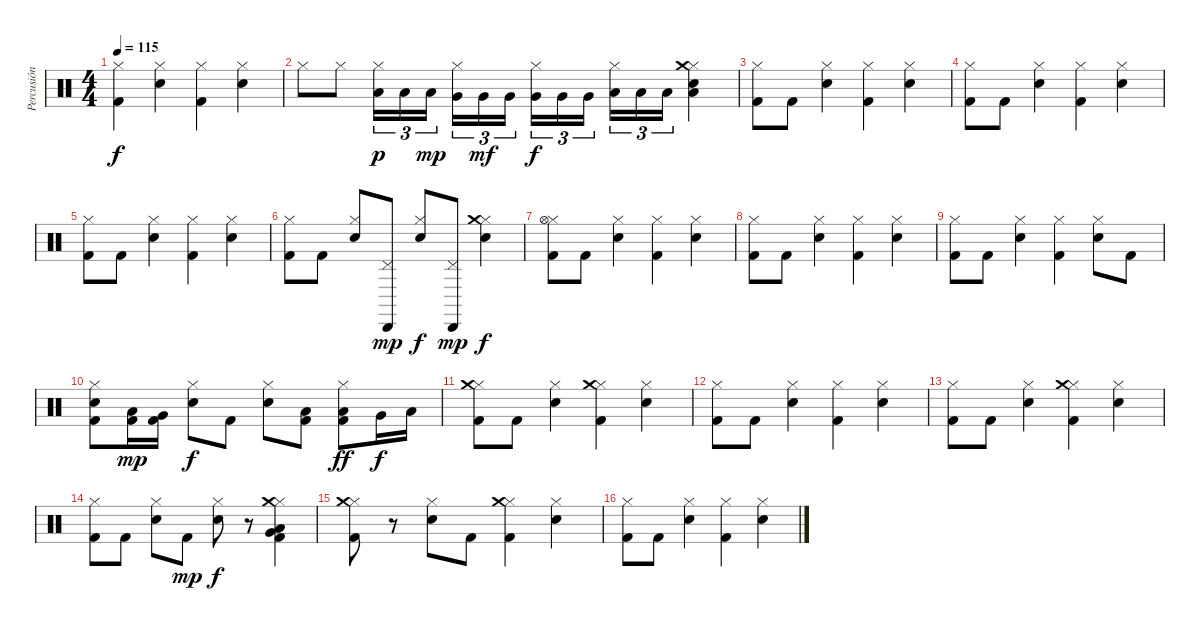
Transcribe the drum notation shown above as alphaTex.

\track ("Percusión" "Percusión") {instrument percussion}
\staff {score}
\articulation defaults
\ts (4 4)
\tempo 115
\clef neutral
\ks c
("Hi-Hat (closed)" "Kick (hit) 2").4{dy f} ("Hi-Hat (closed)" "Snare (hit) 2").4 ("Hi-Hat (closed)" "Kick (hit) 2").4 ("Hi-Hat (closed)" "Snare (hit) 2").4 |
"Hi-Hat (closed)".8 "Hi-Hat (closed)".8 ("Hi-Hat (closed)" "Low Tom (hit)").16{tu (3 2) dy p} "Low Tom (hit)".16{tu (3 2)} "Low Tom (hit)".16{tu (3 2) dy mp} ("Hi-Hat (closed)" "Very Low Tom (hit)").16{tu (3 2)} "Very Low Tom (hit)".16{tu (3 2) dy mf} "Very Low Tom (hit)".16{tu (3 2)} ("Hi-Hat (closed)" "Very Low Tom (hit)").16{tu (3 2) dy f} "Very Low Tom (hit)".16{tu (3 2)} "Very Low Tom (hit)".16{tu (3 2)} ("Hi-Hat (closed)" "Low Floor Tom (hit)").16{tu (3 2)} "Low Floor Tom (hit)".16{tu (3 2)} "Low Floor Tom (hit)".16{tu (3 2)} ("Hi-Hat (closed)" "Snare (hit) 2" "Low Floor Tom (hit)" "Crash medium (hit)").4 |
("Hi-Hat (closed)" "Kick (hit) 2").8 "Kick (hit) 2".8 ("Hi-Hat (closed)" "Snare (hit) 2").4 ("Hi-Hat (closed)" "Kick (hit) 2").4 ("Hi-Hat (closed)" "Snare (hit) 2").4 |
("Hi-Hat (closed)" "Kick (hit) 2").8 "Kick (hit) 2".8 ("Hi-Hat (closed)" "Snare (hit) 2").4 ("Hi-Hat (closed)" "Kick (hit) 2").4 ("Hi-Hat (closed)" "Snare (hit) 2").4 |
("Hi-Hat (closed)" "Kick (hit) 2").8 "Kick (hit) 2".8 ("Hi-Hat (closed)" "Snare (hit) 2").4 ("Hi-Hat (closed)" "Kick (hit) 2").4 ("Hi-Hat (closed)" "Snare (hit) 2").4 |
("Hi-Hat (closed)" "Kick (hit) 2").8 "Kick (hit) 2".8 ("Hi-Hat (closed)" "Snare (hit) 2").8 ("Pedal Hi-Hat (hit)" "Cabasa (hit)").8{dy mp} ("Hi-Hat (closed)" "Snare (hit) 2").8{dy f} ("Pedal Hi-Hat (hit)" "Cabasa (hit)").8{dy mp} ("Hi-Hat (closed)" "Snare (hit) 2" "Crash medium (hit)").4{dy f} |
("Hi-Hat (closed)" "Kick (hit) 2" "Hi-Hat (open)").8 "Kick (hit) 2".8 ("Hi-Hat (closed)" "Snare (hit) 2").4 ("Hi-Hat (closed)" "Kick (hit) 2").4 ("Hi-Hat (closed)" "Snare (hit) 2").4 |
("Hi-Hat (closed)" "Kick (hit) 2").8 "Kick (hit) 2".8 ("Hi-Hat (closed)" "Snare (hit) 2").4 ("Hi-Hat (closed)" "Kick (hit) 2").4 ("Hi-Hat (closed)" "Snare (hit) 2").4 |
("Hi-Hat (closed)" "Kick (hit) 2").8 "Kick (hit) 2".8 ("Hi-Hat (closed)" "Snare (hit) 2").4 ("Hi-Hat (closed)" "Kick (hit) 2").4 ("Hi-Hat (closed)" "Snare (hit) 2").8 "Kick (hit) 2".8 |
("Hi-Hat (closed)" "Snare (hit) 2" "Kick (hit) 2").8 ("Low Tom (hit)" "Kick (hit) 2").16{dy mp} ("Very Low Tom (hit)" "Kick (hit) 2").16 ("Hi-Hat (closed)" "Snare (hit) 2").8{dy f} "Kick (hit) 2".8 ("Hi-Hat (closed)" "Snare (hit) 2").8 ("Low Tom (hit)" "Kick (hit) 2").8 ("Hi-Hat (closed)" "Low Tom (hit)" "Kick (hit) 2").8{dy ff} "Very Low Tom (hit)".16{dy f} "Low Floor Tom (hit)".16 |
("Hi-Hat (closed)" "Kick (hit) 2" "Crash medium (hit)").8 "Kick (hit) 2".8 ("Hi-Hat (closed)" "Snare (hit) 2").4 ("Hi-Hat (closed)" "Kick (hit) 2" "Crash medium (hit)").4 ("Hi-Hat (closed)" "Snare (hit) 2").4 |
("Hi-Hat (closed)" "Kick (hit) 2").8 "Kick (hit) 2".8 ("Hi-Hat (closed)" "Snare (hit) 2").4 ("Hi-Hat (closed)" "Kick (hit) 2").4 ("Hi-Hat (closed)" "Snare (hit) 2").4 |
("Hi-Hat (closed)" "Kick (hit) 2").8 "Kick (hit) 2".8 ("Hi-Hat (closed)" "Snare (hit) 2").4 ("Hi-Hat (closed)" "Kick (hit) 2" "Crash medium (hit)").4 ("Hi-Hat (closed)" "Snare (hit) 2").4 |
("Hi-Hat (closed)" "Kick (hit) 2").8 "Kick (hit) 2".8 ("Hi-Hat (closed)" "Snare (hit) 2").8 "Kick (hit) 2".8{dy mp} ("Hi-Hat (closed)" "Snare (hit) 2").8{dy f} r.8 ("Hi-Hat (closed)" "Low Tom (hit)" "Crash medium (hit)" "Very Low Tom (hit)" "Kick (hit) 2").4 |
("Hi-Hat (closed)" "Kick (hit) 2" "Crash medium (hit)").8 r.8 ("Hi-Hat (closed)" "Snare (hit) 2").8 "Kick (hit) 2".8 ("Hi-Hat (closed)" "Kick (hit) 2" "Crash medium (hit)").4 ("Hi-Hat (closed)" "Snare (hit) 2").4 |
("Hi-Hat (closed)" "Kick (hit) 2").8 "Kick (hit) 2".8 ("Hi-Hat (closed)" "Snare (hit) 2").4 ("Hi-Hat (closed)" "Kick (hit) 2").4 ("Hi-Hat (closed)" "Snare (hit) 2").4
